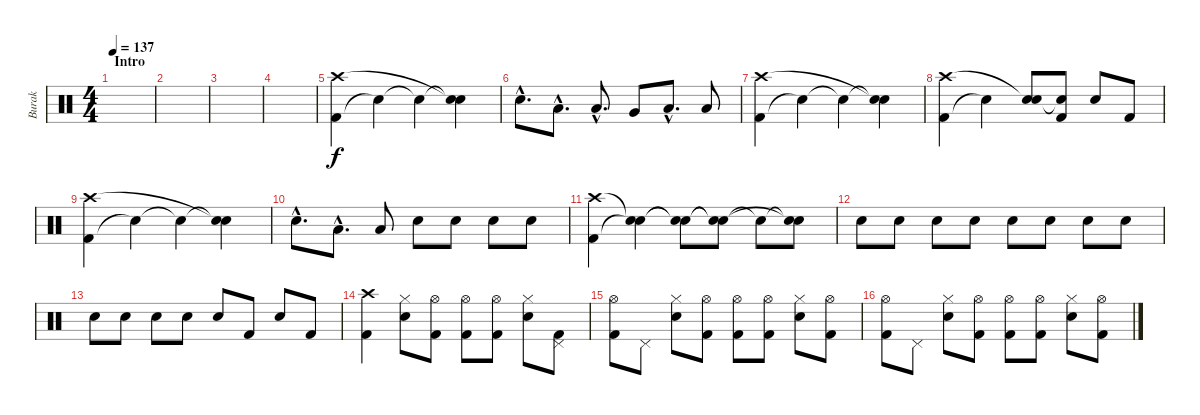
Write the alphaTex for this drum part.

\track ("Burak" "Burak") {instrument percussion}
\staff {score}
\articulation defaults
\ts (4 4)
\section ("" "Intro")
\tempo 137
\clef neutral
\ks c
|
|
|
|
("Kick (hit) 2" "Crash high (hit)").4 "Snare (hit)"{t}.4 "Snare (hit)"{t}.4 ("Snare (hit)"{t} "Snare (hit)"{t}).4 |
"Electric Snare (hit)"{hac}.8{d} "Low Tom (hit)"{hac}.8{d} "Low Floor Tom (hit)"{hac}.8{d} "Very Low Tom (hit)".8 "Low Tom (hit)"{hac}.8{d} "Low Floor Tom (hit)".8 |
("Kick (hit) 2" "Crash high (hit)").4 "Snare (hit)"{t}.4 "Snare (hit)"{t}.4 ("Snare (hit)"{t} "Snare (hit)"{t}).4 |
("Kick (hit) 2" "Crash high (hit)").4 "Snare (hit)"{t}.4 ("Electric Snare (hit)" "Snare (hit)"{t}).8 ("Kick (hit) 2" "Snare (hit)"{t}).8 "Electric Snare (hit)".8 "Kick (hit) 2".8 |
("Kick (hit) 2" "Crash high (hit)").4 "Snare (hit)"{t}.4 "Snare (hit)"{t}.4 ("Snare (hit)"{t} "Snare (hit)"{t}).4 |
"Electric Snare (hit)"{hac}.8{d} "Low Tom (hit)"{hac}.8{d} "Low Floor Tom (hit)".8 "Electric Snare (hit)".8 "Electric Snare (hit)".8 "Electric Snare (hit)".8 "Electric Snare (hit)".8 |
("Kick (hit) 2" "Crash high (hit)").4 ("Snare (hit)"{t} "Snare (hit)"{t}).4 ("Snare (hit)"{t} "Snare (hit)"{t}).8 ("Snare (hit)"{t} "Snare (hit)"{t}).8 "Snare (hit)"{t}.8 ("Snare (hit)"{t} "Snare (hit)"{t}).8 |
"Electric Snare (hit)".8 "Electric Snare (hit)".8 "Electric Snare (hit)".8 "Electric Snare (hit)".8 "Electric Snare (hit)".8 "Electric Snare (hit)".8 "Electric Snare (hit)".8 "Electric Snare (hit)".8 |
"Electric Snare (hit)".8 "Electric Snare (hit)".8 "Electric Snare (hit)".8 "Electric Snare (hit)".8 "Electric Snare (hit)".8 "Kick (hit) 2".8 "Electric Snare (hit)".8 "Kick (hit) 2".8 |
("Kick (hit) 2" "Crash high (hit)").4 ("Electric Snare (hit)" "Hi-Hat (closed)").8 ("Kick (hit) 2" "Hi-Hat (open)").8 ("Kick (hit) 2" "Hi-Hat (open)").8 ("Kick (hit) 2" "Hi-Hat (open)").8 ("Electric Snare (hit)" "Hi-Hat (closed)").8 ("Kick (hit) 2" "Pedal Hi-Hat (hit)").8 |
("Kick (hit) 2" "Hi-Hat (open)").8 "Pedal Hi-Hat (hit)".8 ("Electric Snare (hit)" "Hi-Hat (closed)").8 ("Kick (hit) 2" "Hi-Hat (open)").8 ("Kick (hit) 2" "Hi-Hat (open)").8 ("Kick (hit) 2" "Hi-Hat (open)").8 ("Electric Snare (hit)" "Hi-Hat (closed)").8 ("Kick (hit) 2" "Hi-Hat (open)").8 |
("Kick (hit) 2" "Hi-Hat (open)").8 "Pedal Hi-Hat (hit)".8 ("Electric Snare (hit)" "Hi-Hat (closed)").8 ("Kick (hit) 2" "Hi-Hat (open)").8 ("Kick (hit) 2" "Hi-Hat (open)").8 ("Kick (hit) 2" "Hi-Hat (open)").8 ("Electric Snare (hit)" "Hi-Hat (closed)").8 ("Kick (hit) 2" "Hi-Hat (open)").8
